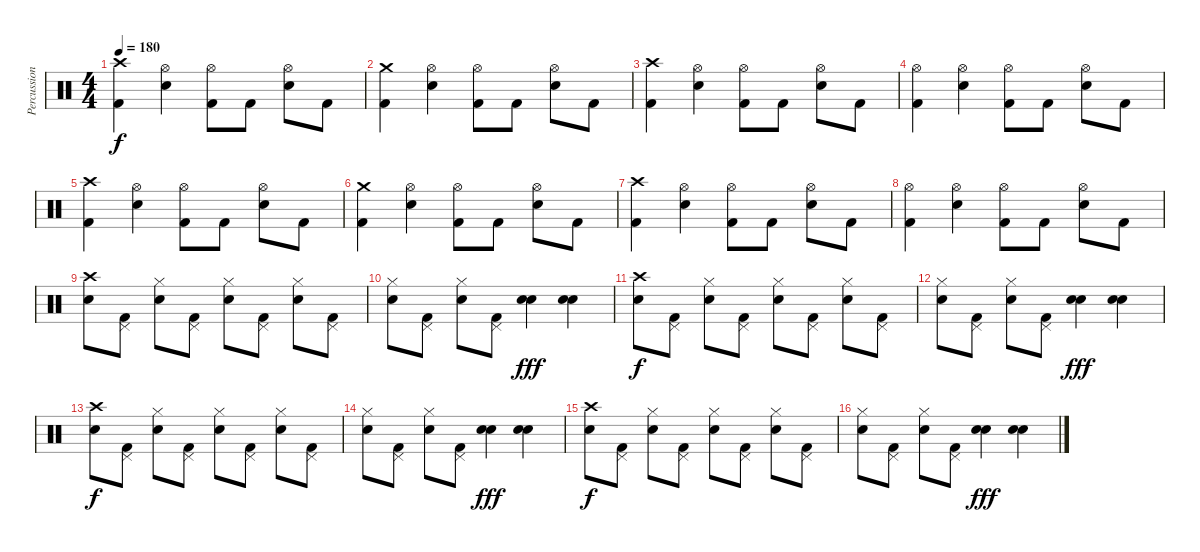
\track ("Percussion" "Percussion") {instrument percussion}
\staff {score}
\articulation defaults
\ts (4 4)
\tempo 180
\clef neutral
\ks c
("Crash high (hit)" "Kick (hit) 2").4{dy f volume 13} ("Hi-Hat (open)" "Electric Snare (hit)").4 ("Hi-Hat (open)" "Kick (hit) 2").8 "Kick (hit) 2".8 ("Hi-Hat (open)" "Electric Snare (hit)").8 "Kick (hit) 2".8 |
("Crash medium (hit)" "Kick (hit) 2").4 ("Hi-Hat (open)" "Electric Snare (hit)").4 ("Hi-Hat (open)" "Kick (hit) 2").8 "Kick (hit) 2".8 ("Hi-Hat (open)" "Electric Snare (hit)").8 "Kick (hit) 2".8 |
("Crash high (hit)" "Kick (hit) 2").4 ("Hi-Hat (open)" "Electric Snare (hit)").4 ("Hi-Hat (open)" "Kick (hit) 2").8 "Kick (hit) 2".8 ("Hi-Hat (open)" "Electric Snare (hit)").8 "Kick (hit) 2".8 |
("Hi-Hat (open)" "Kick (hit) 2").4 ("Hi-Hat (open)" "Electric Snare (hit)").4 ("Hi-Hat (open)" "Kick (hit) 2").8 "Kick (hit) 2".8 ("Hi-Hat (open)" "Electric Snare (hit)").8 "Kick (hit) 2".8 |
("Crash high (hit)" "Kick (hit) 2").4 ("Hi-Hat (open)" "Electric Snare (hit)").4 ("Hi-Hat (open)" "Kick (hit) 2").8 "Kick (hit) 2".8 ("Hi-Hat (open)" "Electric Snare (hit)").8 "Kick (hit) 2".8 |
("Crash medium (hit)" "Kick (hit) 2").4 ("Hi-Hat (open)" "Electric Snare (hit)").4 ("Hi-Hat (open)" "Kick (hit) 2").8 "Kick (hit) 2".8 ("Hi-Hat (open)" "Electric Snare (hit)").8 "Kick (hit) 2".8 |
("Crash high (hit)" "Kick (hit) 2").4 ("Hi-Hat (open)" "Electric Snare (hit)").4 ("Hi-Hat (open)" "Kick (hit) 2").8 "Kick (hit) 2".8 ("Hi-Hat (open)" "Electric Snare (hit)").8 "Kick (hit) 2".8 |
("Hi-Hat (open)" "Kick (hit) 2").4 ("Hi-Hat (open)" "Electric Snare (hit)").4 ("Hi-Hat (open)" "Kick (hit) 2").8 "Kick (hit) 2".8 ("Hi-Hat (open)" "Electric Snare (hit)").8 "Kick (hit) 2".8 |
("Crash high (hit)" "Snare (hit) 2").8 ("Pedal Hi-Hat (hit)" "Kick (hit) 2").8 ("Hi-Hat (closed)" "Snare (hit) 2").8 ("Pedal Hi-Hat (hit)" "Kick (hit) 2").8 ("Hi-Hat (closed)" "Snare (hit) 2").8 ("Pedal Hi-Hat (hit)" "Kick (hit) 2").8 ("Hi-Hat (closed)" "Snare (hit) 2").8 ("Pedal Hi-Hat (hit)" "Kick (hit) 2").8 |
("Hi-Hat (closed)" "Snare (hit) 2").8 ("Pedal Hi-Hat (hit)" "Kick (hit) 2").8 ("Hi-Hat (closed)" "Snare (hit) 2").8 ("Pedal Hi-Hat (hit)" "Kick (hit) 2").8 ("Snare (hit) 2" "Electric Snare (hit)").4{dy fff} ("Snare (hit) 2" "Electric Snare (hit)").4 |
("Crash high (hit)" "Snare (hit) 2").8{dy f} ("Pedal Hi-Hat (hit)" "Kick (hit) 2").8 ("Hi-Hat (closed)" "Snare (hit) 2").8 ("Pedal Hi-Hat (hit)" "Kick (hit) 2").8 ("Hi-Hat (closed)" "Snare (hit) 2").8 ("Pedal Hi-Hat (hit)" "Kick (hit) 2").8 ("Hi-Hat (closed)" "Snare (hit) 2").8 ("Pedal Hi-Hat (hit)" "Kick (hit) 2").8 |
("Hi-Hat (closed)" "Snare (hit) 2").8 ("Pedal Hi-Hat (hit)" "Kick (hit) 2").8 ("Hi-Hat (closed)" "Snare (hit) 2").8 ("Pedal Hi-Hat (hit)" "Kick (hit) 2").8 ("Snare (hit) 2" "Electric Snare (hit)").4{dy fff} ("Snare (hit) 2" "Electric Snare (hit)").4 |
("Crash high (hit)" "Snare (hit) 2").8{dy f} ("Pedal Hi-Hat (hit)" "Kick (hit) 2").8 ("Hi-Hat (closed)" "Snare (hit) 2").8 ("Pedal Hi-Hat (hit)" "Kick (hit) 2").8 ("Hi-Hat (closed)" "Snare (hit) 2").8 ("Pedal Hi-Hat (hit)" "Kick (hit) 2").8 ("Hi-Hat (closed)" "Snare (hit) 2").8 ("Pedal Hi-Hat (hit)" "Kick (hit) 2").8 |
("Hi-Hat (closed)" "Snare (hit) 2").8 ("Pedal Hi-Hat (hit)" "Kick (hit) 2").8 ("Hi-Hat (closed)" "Snare (hit) 2").8 ("Pedal Hi-Hat (hit)" "Kick (hit) 2").8 ("Snare (hit) 2" "Electric Snare (hit)").4{dy fff} ("Snare (hit) 2" "Electric Snare (hit)").4 |
("Crash high (hit)" "Snare (hit) 2").8{dy f} ("Pedal Hi-Hat (hit)" "Kick (hit) 2").8 ("Hi-Hat (closed)" "Snare (hit) 2").8 ("Pedal Hi-Hat (hit)" "Kick (hit) 2").8 ("Hi-Hat (closed)" "Snare (hit) 2").8 ("Pedal Hi-Hat (hit)" "Kick (hit) 2").8 ("Hi-Hat (closed)" "Snare (hit) 2").8 ("Pedal Hi-Hat (hit)" "Kick (hit) 2").8 |
("Hi-Hat (closed)" "Snare (hit) 2").8 ("Pedal Hi-Hat (hit)" "Kick (hit) 2").8 ("Hi-Hat (closed)" "Snare (hit) 2").8 ("Pedal Hi-Hat (hit)" "Kick (hit) 2").8 ("Snare (hit) 2" "Electric Snare (hit)").4{dy fff} ("Snare (hit) 2" "Electric Snare (hit)").4
